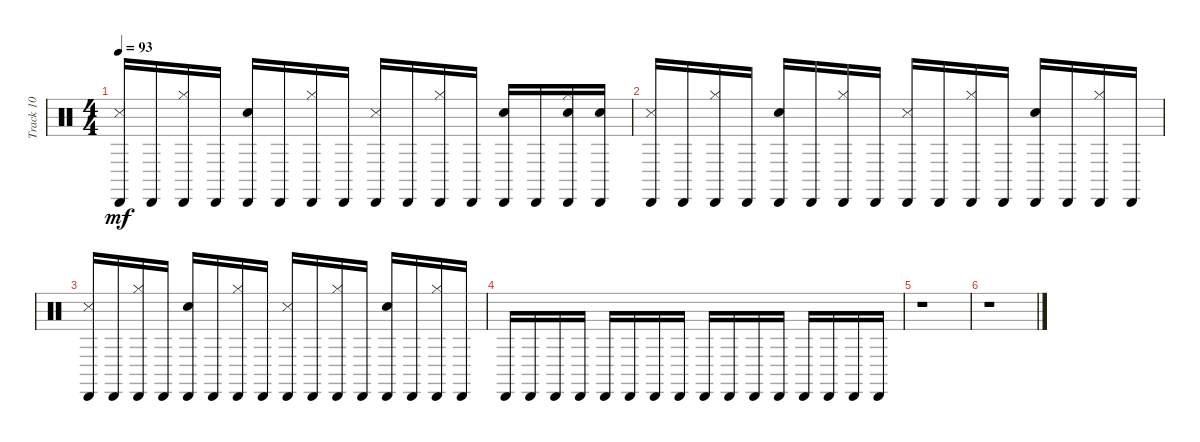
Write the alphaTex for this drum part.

\track ("Track 10" "Track 10") {instrument percussion}
\staff {score}
\articulation defaults
\ts (4 4)
\tempo 93
\clef neutral
\ks c
("Cabasa (hit)" "Metronome (hit)").16{dy mf} "Cabasa (hit)".16 ("Cabasa (hit)" "Hi-Hat (closed)").16 "Cabasa (hit)".16 ("Electric Snare (hit)" "Cabasa (hit)").16 "Cabasa (hit)".16 ("Hi-Hat (closed)" "Cabasa (hit)").16 "Cabasa (hit)".16 ("Metronome (hit)" "Cabasa (hit)").16 "Cabasa (hit)".16 ("Cabasa (hit)" "Hi-Hat (closed)").16 "Cabasa (hit)".16 ("Electric Snare (hit)" "Cabasa (hit)").16 "Cabasa (hit)".16 ("Hi-Hat (closed)" "Snare (hit)" "Cabasa (hit)").16 ("Cabasa (hit)" "Snare (hit)").16 |
("Cabasa (hit)" "Metronome (hit)").16 "Cabasa (hit)".16 ("Cabasa (hit)" "Hi-Hat (closed)").16 "Cabasa (hit)".16 ("Cabasa (hit)" "Electric Snare (hit)").16 "Cabasa (hit)".16 ("Hi-Hat (closed)" "Cabasa (hit)").16 "Cabasa (hit)".16 ("Metronome (hit)" "Cabasa (hit)").16 "Cabasa (hit)".16 ("Hi-Hat (closed)" "Cabasa (hit)").16 "Cabasa (hit)".16 ("Cabasa (hit)" "Electric Snare (hit)").16 "Cabasa (hit)".16 ("Hi-Hat (closed)" "Cabasa (hit)").16 "Cabasa (hit)".16 |
("Metronome (hit)" "Cabasa (hit)").16 "Cabasa (hit)".16 ("Cabasa (hit)" "Hi-Hat (closed)").16 "Cabasa (hit)".16 ("Electric Snare (hit)" "Cabasa (hit)").16 "Cabasa (hit)".16 ("Cabasa (hit)" "Hi-Hat (closed)").16 "Cabasa (hit)".16 ("Cabasa (hit)" "Metronome (hit)").16 "Cabasa (hit)".16 ("Cabasa (hit)" "Hi-Hat (closed)").16 "Cabasa (hit)".16 ("Electric Snare (hit)" "Cabasa (hit)").16 "Cabasa (hit)".16 ("Hi-Hat (closed)" "Cabasa (hit)").16 "Cabasa (hit)".16 |
"Cabasa (hit)".16 "Cabasa (hit)".16 "Cabasa (hit)".16 "Cabasa (hit)".16 "Cabasa (hit)".16 "Cabasa (hit)".16 "Cabasa (hit)".16 "Cabasa (hit)".16 "Cabasa (hit)".16 "Cabasa (hit)".16 "Cabasa (hit)".16 "Cabasa (hit)".16 "Cabasa (hit)".16 "Cabasa (hit)".16 "Cabasa (hit)".16 "Cabasa (hit)".16 |
r.1 |
r.1
